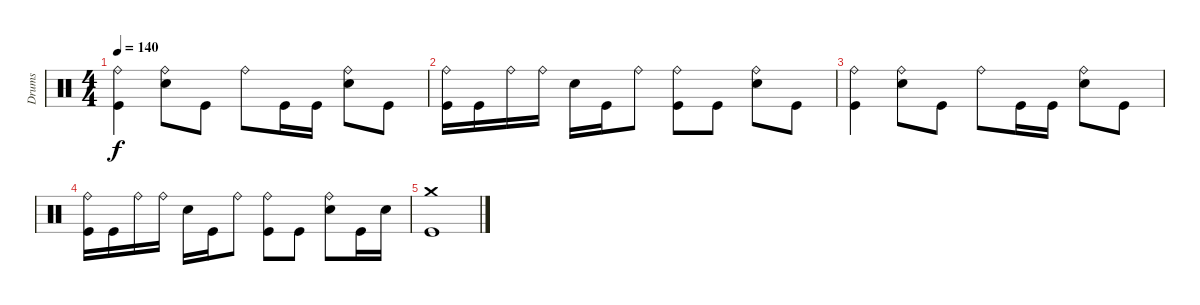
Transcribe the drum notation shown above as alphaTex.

\track ("Drums" "Drums") {instrument percussion}
\staff {score}
\articulation defaults
\ts (4 4)
\tempo 140
\clef neutral
\ks c
("Kick (hit)" "Ride (bell)").4{dy f} ("Electric Snare (hit)" "Ride (bell)").8 "Kick (hit)".8 "Ride (bell)".8 "Kick (hit)".16 "Kick (hit)".16 ("Electric Snare (hit)" "Ride (bell)").8 "Kick (hit)".8 |
("Kick (hit)" "Ride (bell)").16 "Kick (hit)".16 "Ride (bell)".16 "Ride (bell)".16 "Electric Snare (hit)".16 "Kick (hit)".16 "Ride (bell)".8 ("Kick (hit)" "Ride (bell)").8 "Kick (hit)".8 ("Electric Snare (hit)" "Ride (bell)").8 "Kick (hit)".8 |
("Kick (hit)" "Ride (bell)").4 ("Electric Snare (hit)" "Ride (bell)").8 "Kick (hit)".8 "Ride (bell)".8 "Kick (hit)".16 "Kick (hit)".16 ("Electric Snare (hit)" "Ride (bell)").8 "Kick (hit)".8 |
("Kick (hit)" "Ride (bell)").16 "Kick (hit)".16 "Ride (bell)".16 "Ride (bell)".16 "Electric Snare (hit)".16 "Kick (hit)".16 "Ride (bell)".8 ("Kick (hit)" "Ride (bell)").8 "Kick (hit)".8 ("Electric Snare (hit)" "Ride (bell)").8 "Kick (hit)".16 "Electric Snare (hit)".16 |
("Kick (hit)" "Crash medium (hit)").1
